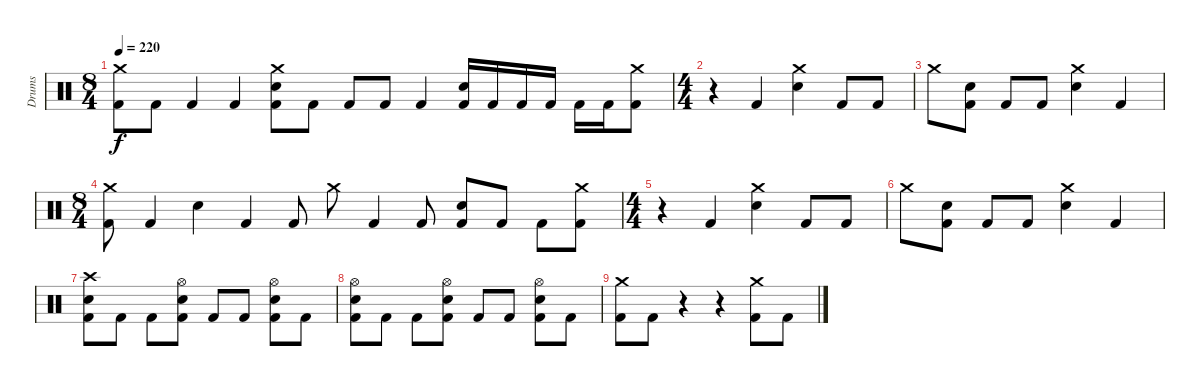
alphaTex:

\track ("Drums" "Drums") {instrument percussion}
\staff {score}
\articulation defaults
\ts (8 4)
\tempo 220
\clef neutral
\ks c
("Crash medium (hit)" "Kick (hit) 2").8{dy f} "Kick (hit) 2".8 "Kick (hit) 2".4 "Kick (hit) 2".4 ("Crash medium (hit)" "Snare (hit) 2" "Kick (hit) 2").8 "Kick (hit) 2".8 "Kick (hit) 2".8 "Kick (hit) 2".8 "Kick (hit) 2".4 ("Snare (hit) 2" "Kick (hit) 2").16 "Kick (hit) 2".16 "Kick (hit) 2".16 "Kick (hit) 2".16 "Kick (hit) 2".16 "Kick (hit) 2".16 ("Crash medium (hit)" "Kick (hit) 2").8 |
\ts (4 4)
r.4 "Kick (hit) 2".4 ("Crash medium (hit)" "Snare (hit) 2").4 "Kick (hit) 2".8 "Kick (hit) 2".8 |
"Crash medium (hit)".8 ("Snare (hit) 2" "Kick (hit) 2").8 "Kick (hit) 2".8 "Kick (hit) 2".8 ("Crash medium (hit)" "Snare (hit) 2").4 "Kick (hit) 2".4 |
\ts (8 4)
("Crash medium (hit)" "Kick (hit) 2").8 "Kick (hit) 2".4 "Snare (hit) 2".4 "Kick (hit) 2".4 "Kick (hit) 2".8 "Crash medium (hit)".8 "Kick (hit) 2".4 "Kick (hit) 2".8 ("Snare (hit) 2" "Kick (hit) 2").8 "Kick (hit) 2".8 "Kick (hit) 2".8 ("Crash medium (hit)" "Kick (hit) 2").8 |
\ts (4 4)
r.4 "Kick (hit) 2".4 ("Crash medium (hit)" "Snare (hit) 2").4 "Kick (hit) 2".8 "Kick (hit) 2".8 |
"Crash medium (hit)".8 ("Snare (hit) 2" "Kick (hit) 2").8 "Kick (hit) 2".8 "Kick (hit) 2".8 ("Crash medium (hit)" "Snare (hit) 2").4 "Kick (hit) 2".4 |
("Crash high (hit)" "Snare (hit) 2" "Kick (hit) 2").8 "Kick (hit) 2".8 "Kick (hit) 2".8 ("Hi-Hat (open)" "Snare (hit) 2" "Kick (hit) 2").8 "Kick (hit) 2".8 "Kick (hit) 2".8 ("Hi-Hat (open)" "Snare (hit) 2" "Kick (hit) 2").8 "Kick (hit) 2".8 |
("Hi-Hat (open)" "Snare (hit) 2" "Kick (hit) 2").8 "Kick (hit) 2".8 "Kick (hit) 2".8 ("Hi-Hat (open)" "Snare (hit) 2" "Kick (hit) 2").8 "Kick (hit) 2".8 "Kick (hit) 2".8 ("Hi-Hat (open)" "Snare (hit) 2" "Kick (hit) 2").8 "Kick (hit) 2".8 |
("Crash medium (hit)" "Kick (hit) 2").8 "Kick (hit) 2".8 r.4 r.4 ("Crash medium (hit)" "Kick (hit) 2").8 "Kick (hit) 2".8
